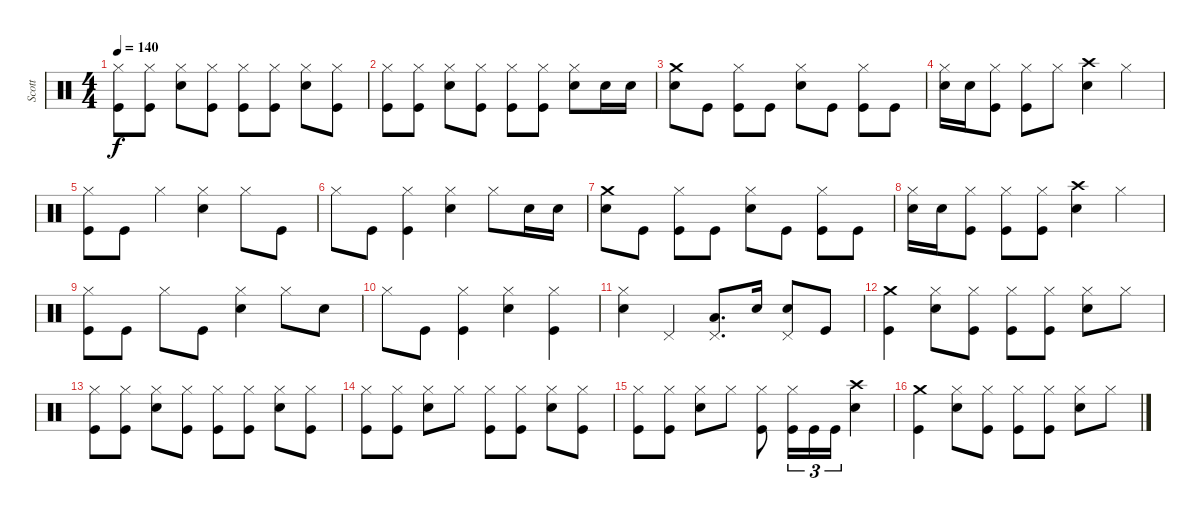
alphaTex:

\track ("Scott" "Scott") {instrument percussion}
\staff {score}
\articulation defaults
\ts (4 4)
\tempo 140
\clef neutral
\ks c
("Kick (hit)" "Hi-Hat (closed)").8{dy f} ("Kick (hit)" "Hi-Hat (closed)").8 ("Snare (hit) 2" "Hi-Hat (closed)").8 ("Kick (hit)" "Hi-Hat (closed)").8 ("Kick (hit)" "Hi-Hat (closed)").8 ("Kick (hit)" "Hi-Hat (closed)").8 ("Snare (hit) 2" "Hi-Hat (closed)").8 ("Kick (hit)" "Hi-Hat (closed)").8 |
("Kick (hit)" "Hi-Hat (closed)").8 ("Kick (hit)" "Hi-Hat (closed)").8 ("Snare (hit) 2" "Hi-Hat (closed)").8 ("Kick (hit)" "Hi-Hat (closed)").8 ("Kick (hit)" "Hi-Hat (closed)").8 ("Kick (hit)" "Hi-Hat (closed)").8 ("Snare (hit) 2" "Hi-Hat (closed)").8 "Snare (hit) 2".16 "Snare (hit) 2".16 |
("Snare (hit) 2" "Crash medium (hit)").8 "Kick (hit)".8 ("Kick (hit)" "Hi-Hat (closed)").8 "Kick (hit)".8 ("Snare (hit) 2" "Hi-Hat (closed)").8 "Kick (hit)".8 ("Kick (hit)" "Hi-Hat (closed)").8 "Kick (hit)".8 |
("Snare (hit) 2" "Hi-Hat (closed)").16 "Snare (hit) 2".16 ("Kick (hit)" "Hi-Hat (closed)").8 ("Kick (hit)" "Hi-Hat (closed)").8 "Hi-Hat (closed)".8 ("Snare (hit) 2" "Crash high (hit)").4 "Hi-Hat (closed)".4 |
("Kick (hit)" "Hi-Hat (closed)").8 "Kick (hit)".8 "Hi-Hat (closed)".4 ("Snare (hit) 2" "Hi-Hat (closed)").4 "Hi-Hat (closed)".8 "Kick (hit)".8 |
"Hi-Hat (closed)".8 "Kick (hit)".8 ("Kick (hit)" "Hi-Hat (closed)").4 ("Snare (hit) 2" "Hi-Hat (closed)").4 "Hi-Hat (closed)".8 "Snare (hit) 2".16 "Snare (hit) 2".16 |
("Snare (hit) 2" "Crash medium (hit)").8 "Kick (hit)".8 ("Kick (hit)" "Hi-Hat (closed)").8 "Kick (hit)".8 ("Snare (hit) 2" "Hi-Hat (closed)").8 "Kick (hit)".8 ("Kick (hit)" "Hi-Hat (closed)").8 "Kick (hit)".8 |
("Snare (hit) 2" "Hi-Hat (closed)").16 "Snare (hit) 2".16 ("Kick (hit)" "Hi-Hat (closed)").8 ("Kick (hit)" "Hi-Hat (closed)").8 ("Kick (hit)" "Hi-Hat (closed)").8 ("Snare (hit) 2" "Crash high (hit)").4 "Hi-Hat (closed)".4 |
("Kick (hit)" "Hi-Hat (closed)").8 "Kick (hit)".8 "Hi-Hat (closed)".8 "Kick (hit)".8 ("Snare (hit) 2" "Hi-Hat (closed)").4 "Hi-Hat (closed)".8 "Snare (hit) 2".8 |
"Hi-Hat (closed)".8 "Kick (hit)".8 ("Kick (hit)" "Hi-Hat (closed)").4 ("Snare (hit) 2" "Hi-Hat (closed)").4 ("Kick (hit)" "Hi-Hat (closed)").4 |
("Snare (hit) 2" "Hi-Hat (closed)").4 "Pedal Hi-Hat (hit)".4 ("Low Tom (hit)" "Pedal Hi-Hat (hit)").8{d} "Snare (hit) 2".16 ("Snare (hit) 2" "Pedal Hi-Hat (hit)").8 "Kick (hit)".8 |
("Kick (hit)" "Crash medium (hit)").4 ("Snare (hit) 2" "Hi-Hat (closed)").8 ("Kick (hit)" "Hi-Hat (closed)").8 ("Kick (hit)" "Hi-Hat (closed)").8 ("Kick (hit)" "Hi-Hat (closed)").8 ("Snare (hit) 2" "Hi-Hat (closed)").8 "Hi-Hat (closed)".8 |
("Kick (hit)" "Hi-Hat (closed)").8 ("Kick (hit)" "Hi-Hat (closed)").8 ("Snare (hit) 2" "Hi-Hat (closed)").8 ("Kick (hit)" "Hi-Hat (closed)").8 ("Kick (hit)" "Hi-Hat (closed)").8 ("Kick (hit)" "Hi-Hat (closed)").8 ("Snare (hit) 2" "Hi-Hat (closed)").8 ("Kick (hit)" "Hi-Hat (closed)").8 |
("Kick (hit)" "Hi-Hat (closed)").8 ("Kick (hit)" "Hi-Hat (closed)").8 ("Snare (hit) 2" "Hi-Hat (closed)").8 "Hi-Hat (closed)".8 ("Kick (hit)" "Hi-Hat (closed)").8 ("Kick (hit)" "Hi-Hat (closed)").8 ("Snare (hit) 2" "Hi-Hat (closed)").8 ("Kick (hit)" "Hi-Hat (closed)").8 |
("Kick (hit)" "Hi-Hat (closed)").8 ("Kick (hit)" "Hi-Hat (closed)").8 ("Snare (hit) 2" "Hi-Hat (closed)").8 "Hi-Hat (closed)".8 ("Kick (hit)" "Hi-Hat (closed)").8 ("Kick (hit)" "Hi-Hat (closed)").16{tu (3 2)} "Kick (hit)".16{tu (3 2)} "Kick (hit)".16{tu (3 2)} ("Snare (hit) 2" "Crash high (hit)").4 |
("Kick (hit)" "Crash medium (hit)").4 ("Snare (hit) 2" "Hi-Hat (closed)").8 ("Kick (hit)" "Hi-Hat (closed)").8 ("Kick (hit)" "Hi-Hat (closed)").8 ("Kick (hit)" "Hi-Hat (closed)").8 ("Snare (hit) 2" "Hi-Hat (closed)").8 "Hi-Hat (closed)".8
